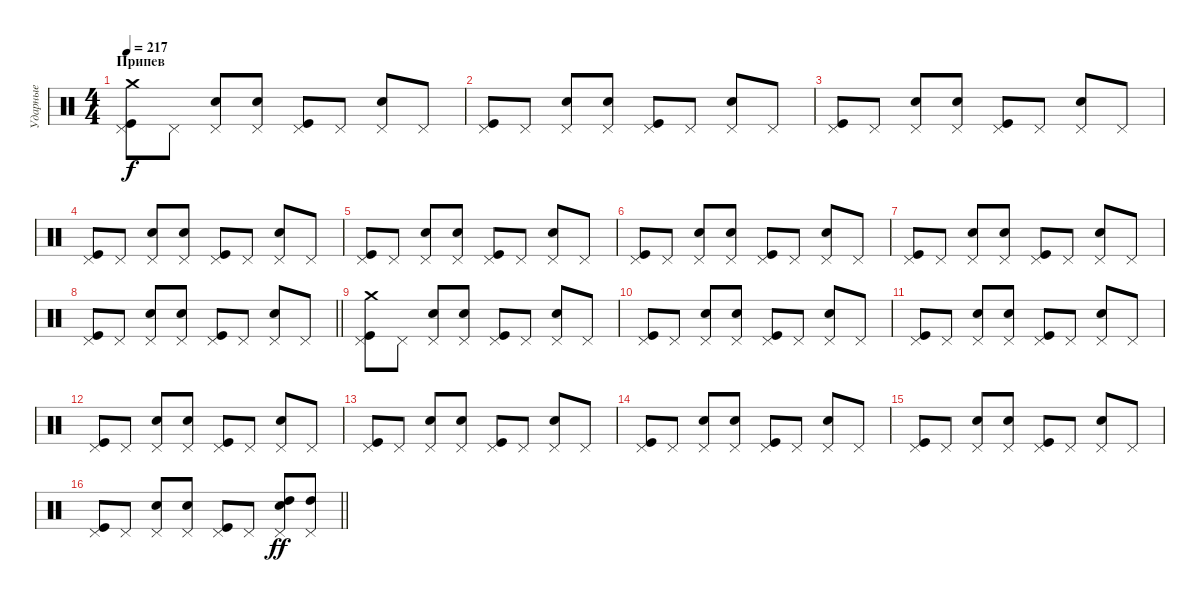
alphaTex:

\track ("Ударные" "Ударные") {instrument percussion}
\staff {score}
\articulation defaults
\ts (4 4)
\section ("" "Припев")
\tempo 217
\clef neutral
\ks c
("Pedal Hi-Hat (hit)" "Kick (hit)" "Crash medium (hit)").8{dy f} "Pedal Hi-Hat (hit)".8 ("Pedal Hi-Hat (hit)" "Snare (hit) 2").8 ("Pedal Hi-Hat (hit)" "Snare (hit) 2").8 ("Pedal Hi-Hat (hit)" "Kick (hit)").8 "Pedal Hi-Hat (hit)".8 ("Pedal Hi-Hat (hit)" "Snare (hit) 2").8 "Pedal Hi-Hat (hit)".8 |
("Pedal Hi-Hat (hit)" "Kick (hit)").8 "Pedal Hi-Hat (hit)".8 ("Pedal Hi-Hat (hit)" "Snare (hit) 2").8 ("Pedal Hi-Hat (hit)" "Snare (hit) 2").8 ("Pedal Hi-Hat (hit)" "Kick (hit)").8 "Pedal Hi-Hat (hit)".8 ("Pedal Hi-Hat (hit)" "Snare (hit) 2").8 "Pedal Hi-Hat (hit)".8 |
("Pedal Hi-Hat (hit)" "Kick (hit)").8 "Pedal Hi-Hat (hit)".8 ("Pedal Hi-Hat (hit)" "Snare (hit) 2").8 ("Pedal Hi-Hat (hit)" "Snare (hit) 2").8 ("Pedal Hi-Hat (hit)" "Kick (hit)").8 "Pedal Hi-Hat (hit)".8 ("Pedal Hi-Hat (hit)" "Snare (hit) 2").8 "Pedal Hi-Hat (hit)".8 |
("Pedal Hi-Hat (hit)" "Kick (hit)").8 "Pedal Hi-Hat (hit)".8 ("Pedal Hi-Hat (hit)" "Snare (hit) 2").8 ("Pedal Hi-Hat (hit)" "Snare (hit) 2").8 ("Pedal Hi-Hat (hit)" "Kick (hit)").8 "Pedal Hi-Hat (hit)".8 ("Pedal Hi-Hat (hit)" "Snare (hit) 2").8 "Pedal Hi-Hat (hit)".8 |
("Pedal Hi-Hat (hit)" "Kick (hit)").8 "Pedal Hi-Hat (hit)".8 ("Pedal Hi-Hat (hit)" "Snare (hit) 2").8 ("Pedal Hi-Hat (hit)" "Snare (hit) 2").8 ("Pedal Hi-Hat (hit)" "Kick (hit)").8 "Pedal Hi-Hat (hit)".8 ("Pedal Hi-Hat (hit)" "Snare (hit) 2").8 "Pedal Hi-Hat (hit)".8 |
("Pedal Hi-Hat (hit)" "Kick (hit)").8 "Pedal Hi-Hat (hit)".8 ("Pedal Hi-Hat (hit)" "Snare (hit) 2").8 ("Pedal Hi-Hat (hit)" "Snare (hit) 2").8 ("Pedal Hi-Hat (hit)" "Kick (hit)").8 "Pedal Hi-Hat (hit)".8 ("Pedal Hi-Hat (hit)" "Snare (hit) 2").8 "Pedal Hi-Hat (hit)".8 |
("Pedal Hi-Hat (hit)" "Kick (hit)").8 "Pedal Hi-Hat (hit)".8 ("Pedal Hi-Hat (hit)" "Snare (hit) 2").8 ("Pedal Hi-Hat (hit)" "Snare (hit) 2").8 ("Pedal Hi-Hat (hit)" "Kick (hit)").8 "Pedal Hi-Hat (hit)".8 ("Pedal Hi-Hat (hit)" "Snare (hit) 2").8 "Pedal Hi-Hat (hit)".8 |
\barLineRight lightlight
("Pedal Hi-Hat (hit)" "Kick (hit)").8 "Pedal Hi-Hat (hit)".8 ("Pedal Hi-Hat (hit)" "Snare (hit) 2").8 ("Pedal Hi-Hat (hit)" "Snare (hit) 2").8 ("Pedal Hi-Hat (hit)" "Kick (hit)").8 "Pedal Hi-Hat (hit)".8 ("Pedal Hi-Hat (hit)" "Snare (hit) 2").8 "Pedal Hi-Hat (hit)".8 |
("Pedal Hi-Hat (hit)" "Kick (hit)" "Crash medium (hit)").8 "Pedal Hi-Hat (hit)".8 ("Pedal Hi-Hat (hit)" "Snare (hit) 2").8 ("Pedal Hi-Hat (hit)" "Snare (hit) 2").8 ("Pedal Hi-Hat (hit)" "Kick (hit)").8 "Pedal Hi-Hat (hit)".8 ("Pedal Hi-Hat (hit)" "Snare (hit) 2").8 "Pedal Hi-Hat (hit)".8 |
("Pedal Hi-Hat (hit)" "Kick (hit)").8 "Pedal Hi-Hat (hit)".8 ("Pedal Hi-Hat (hit)" "Snare (hit) 2").8 ("Pedal Hi-Hat (hit)" "Snare (hit) 2").8 ("Pedal Hi-Hat (hit)" "Kick (hit)").8 "Pedal Hi-Hat (hit)".8 ("Pedal Hi-Hat (hit)" "Snare (hit) 2").8 "Pedal Hi-Hat (hit)".8 |
("Pedal Hi-Hat (hit)" "Kick (hit)").8 "Pedal Hi-Hat (hit)".8 ("Pedal Hi-Hat (hit)" "Snare (hit) 2").8 ("Pedal Hi-Hat (hit)" "Snare (hit) 2").8 ("Pedal Hi-Hat (hit)" "Kick (hit)").8 "Pedal Hi-Hat (hit)".8 ("Pedal Hi-Hat (hit)" "Snare (hit) 2").8 "Pedal Hi-Hat (hit)".8 |
("Pedal Hi-Hat (hit)" "Kick (hit)").8 "Pedal Hi-Hat (hit)".8 ("Pedal Hi-Hat (hit)" "Snare (hit) 2").8 ("Pedal Hi-Hat (hit)" "Snare (hit) 2").8 ("Pedal Hi-Hat (hit)" "Kick (hit)").8 "Pedal Hi-Hat (hit)".8 ("Pedal Hi-Hat (hit)" "Snare (hit) 2").8 "Pedal Hi-Hat (hit)".8 |
("Pedal Hi-Hat (hit)" "Kick (hit)").8 "Pedal Hi-Hat (hit)".8 ("Pedal Hi-Hat (hit)" "Snare (hit) 2").8 ("Pedal Hi-Hat (hit)" "Snare (hit) 2").8 ("Pedal Hi-Hat (hit)" "Kick (hit)").8 "Pedal Hi-Hat (hit)".8 ("Pedal Hi-Hat (hit)" "Snare (hit) 2").8 "Pedal Hi-Hat (hit)".8 |
("Pedal Hi-Hat (hit)" "Kick (hit)").8 "Pedal Hi-Hat (hit)".8 ("Pedal Hi-Hat (hit)" "Snare (hit) 2").8 ("Pedal Hi-Hat (hit)" "Snare (hit) 2").8 ("Pedal Hi-Hat (hit)" "Kick (hit)").8 "Pedal Hi-Hat (hit)".8 ("Pedal Hi-Hat (hit)" "Snare (hit) 2").8 "Pedal Hi-Hat (hit)".8 |
("Pedal Hi-Hat (hit)" "Kick (hit)").8 "Pedal Hi-Hat (hit)".8 ("Pedal Hi-Hat (hit)" "Snare (hit) 2").8 ("Pedal Hi-Hat (hit)" "Snare (hit) 2").8 ("Pedal Hi-Hat (hit)" "Kick (hit)").8 "Pedal Hi-Hat (hit)".8 ("Pedal Hi-Hat (hit)" "Snare (hit) 2").8 "Pedal Hi-Hat (hit)".8 |
\barLineRight lightlight
("Pedal Hi-Hat (hit)" "Kick (hit)").8 "Pedal Hi-Hat (hit)".8 ("Pedal Hi-Hat (hit)" "Snare (hit) 2").8 ("Pedal Hi-Hat (hit)" "Snare (hit) 2").8 ("Pedal Hi-Hat (hit)" "Kick (hit)").8 "Pedal Hi-Hat (hit)".8 ("Pedal Hi-Hat (hit)" "Snare (hit) 2" "High Tom (hit)").8{dy ff} ("Pedal Hi-Hat (hit)" "High Tom (hit)").8
